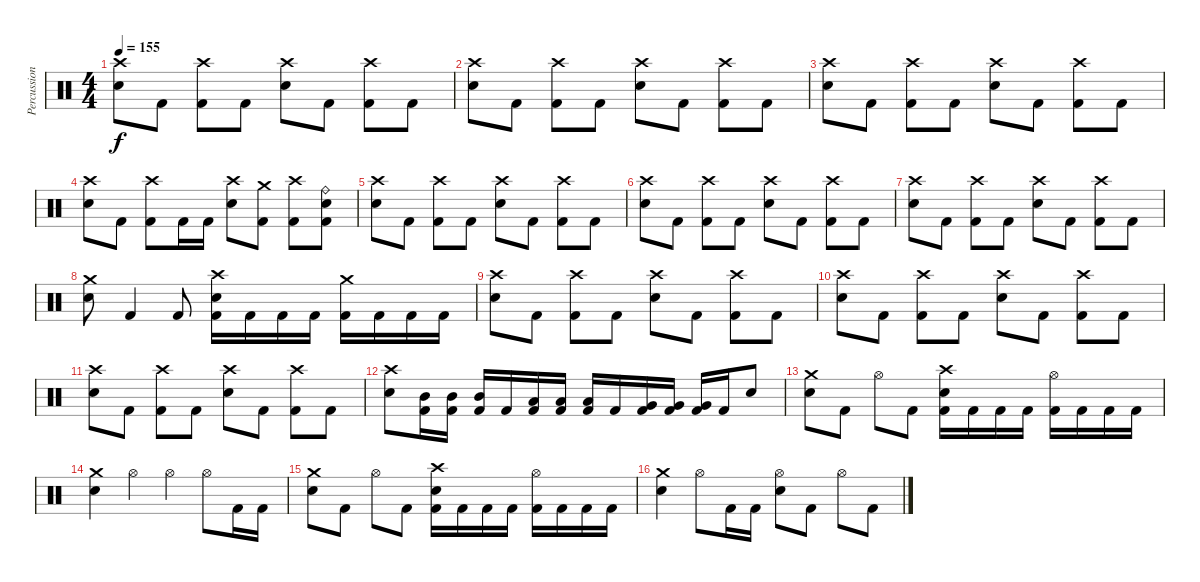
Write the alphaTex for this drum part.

\track ("Percussion" "Percussion") {instrument percussion}
\staff {score}
\articulation defaults
\ts (4 4)
\tempo 155
\clef neutral
\ks c
("Crash high (hit)" "Snare (hit) 2").8{dy f} "Kick (hit) 2".8 ("Crash high (hit)" "Kick (hit) 2").8 "Kick (hit) 2".8 ("Crash high (hit)" "Snare (hit) 2").8 "Kick (hit) 2".8 ("Crash high (hit)" "Kick (hit) 2").8 "Kick (hit) 2".8 |
("Crash high (hit)" "Snare (hit) 2").8 "Kick (hit) 2".8 ("Crash high (hit)" "Kick (hit) 2").8 "Kick (hit) 2".8 ("Crash high (hit)" "Snare (hit) 2").8 "Kick (hit) 2".8 ("Crash high (hit)" "Kick (hit) 2").8 "Kick (hit) 2".8 |
("Crash high (hit)" "Snare (hit) 2").8 "Kick (hit) 2".8 ("Crash high (hit)" "Kick (hit) 2").8 "Kick (hit) 2".8 ("Crash high (hit)" "Snare (hit) 2").8 "Kick (hit) 2".8 ("Crash high (hit)" "Kick (hit) 2").8 "Kick (hit) 2".8 |
("Crash high (hit)" "Snare (hit) 2").8 "Kick (hit) 2".8 ("Crash high (hit)" "Kick (hit) 2").8 "Kick (hit) 2".16 "Kick (hit) 2".16 ("Crash high (hit)" "Snare (hit) 2").8 ("Crash medium (hit)" "Kick (hit) 2").8 ("Crash high (hit)" "Kick (hit) 2").8 ("Ride (bell)" "Snare (hit) 2" "Kick (hit) 2").8 |
("Crash high (hit)" "Snare (hit) 2").8 "Kick (hit) 2".8 ("Crash high (hit)" "Kick (hit) 2").8 "Kick (hit) 2".8 ("Crash high (hit)" "Snare (hit) 2").8 "Kick (hit) 2".8 ("Crash high (hit)" "Kick (hit) 2").8 "Kick (hit) 2".8 |
("Crash high (hit)" "Snare (hit) 2").8 "Kick (hit) 2".8 ("Crash high (hit)" "Kick (hit) 2").8 "Kick (hit) 2".8 ("Crash high (hit)" "Snare (hit) 2").8 "Kick (hit) 2".8 ("Crash high (hit)" "Kick (hit) 2").8 "Kick (hit) 2".8 |
("Crash high (hit)" "Snare (hit) 2").8 "Kick (hit) 2".8 ("Crash high (hit)" "Kick (hit) 2").8 "Kick (hit) 2".8 ("Crash high (hit)" "Snare (hit) 2").8 "Kick (hit) 2".8 ("Crash high (hit)" "Kick (hit) 2").8 "Kick (hit) 2".8 |
("Crash medium (hit)" "Snare (hit) 2").8 "Kick (hit) 2".4 "Kick (hit) 2".8 ("Crash high (hit)" "Snare (hit) 2" "Kick (hit) 2").16 "Kick (hit) 2".16 "Kick (hit) 2".16 "Kick (hit) 2".16 ("Crash medium (hit)" "Kick (hit) 2").16 "Kick (hit) 2".16 "Kick (hit) 2".16 "Kick (hit) 2".16 |
("Crash high (hit)" "Snare (hit) 2").8 "Kick (hit) 2".8 ("Crash high (hit)" "Kick (hit) 2").8 "Kick (hit) 2".8 ("Crash high (hit)" "Snare (hit) 2").8 "Kick (hit) 2".8 ("Crash high (hit)" "Kick (hit) 2").8 "Kick (hit) 2".8 |
("Crash high (hit)" "Snare (hit) 2").8 "Kick (hit) 2".8 ("Crash high (hit)" "Kick (hit) 2").8 "Kick (hit) 2".8 ("Crash high (hit)" "Snare (hit) 2").8 "Kick (hit) 2".8 ("Crash high (hit)" "Kick (hit) 2").8 "Kick (hit) 2".8 |
("Crash high (hit)" "Snare (hit) 2").8 "Kick (hit) 2".8 ("Crash high (hit)" "Kick (hit) 2").8 "Kick (hit) 2".8 ("Crash high (hit)" "Snare (hit) 2").8 "Kick (hit) 2".8 ("Crash high (hit)" "Kick (hit) 2").8 "Kick (hit) 2".8 |
("Crash high (hit)" "Snare (hit) 2").8 ("Mid Tom (hit)" "Kick (hit) 2").16 ("Mid Tom (hit)" "Kick (hit) 2").16 ("Mid Tom (hit)" "Kick (hit) 2").16 "Kick (hit) 2".16 ("Low Tom (hit)" "Kick (hit) 2").16 ("Low Tom (hit)" "Kick (hit) 2").16 ("Low Tom (hit)" "Kick (hit) 2").16 "Kick (hit) 2".16 ("Very Low Tom (hit)" "Kick (hit) 2").16 ("Very Low Tom (hit)" "Kick (hit) 2").16 ("Very Low Tom (hit)" "Kick (hit) 2").16 "Kick (hit) 2".16 "Snare (hit) 2".8 |
("Crash medium (hit)" "Snare (hit) 2").8 "Kick (hit) 2".8 "Hi-Hat (open)".8 "Kick (hit) 2".8 ("Crash high (hit)" "Snare (hit) 2" "Kick (hit) 2").16 "Kick (hit) 2".16 "Kick (hit) 2".16 "Kick (hit) 2".16 ("Hi-Hat (open)" "Kick (hit) 2").16 "Kick (hit) 2".16 "Kick (hit) 2".16 "Kick (hit) 2".16 |
("Crash medium (hit)" "Snare (hit) 2").4 "Hi-Hat (open)".4 "Hi-Hat (open)".4 "Hi-Hat (open)".8 "Kick (hit) 2".16 "Kick (hit) 2".16 |
("Crash medium (hit)" "Snare (hit) 2").8 "Kick (hit) 2".8 "Hi-Hat (open)".8 "Kick (hit) 2".8 ("Crash high (hit)" "Snare (hit) 2" "Kick (hit) 2").16 "Kick (hit) 2".16 "Kick (hit) 2".16 "Kick (hit) 2".16 ("Hi-Hat (open)" "Kick (hit) 2").16 "Kick (hit) 2".16 "Kick (hit) 2".16 "Kick (hit) 2".16 |
("Crash medium (hit)" "Snare (hit) 2").4 "Hi-Hat (open)".8 "Kick (hit) 2".16 "Kick (hit) 2".16 ("Hi-Hat (open)" "Snare (hit) 2").8 "Kick (hit) 2".8 "Hi-Hat (open)".8 "Kick (hit) 2".8
